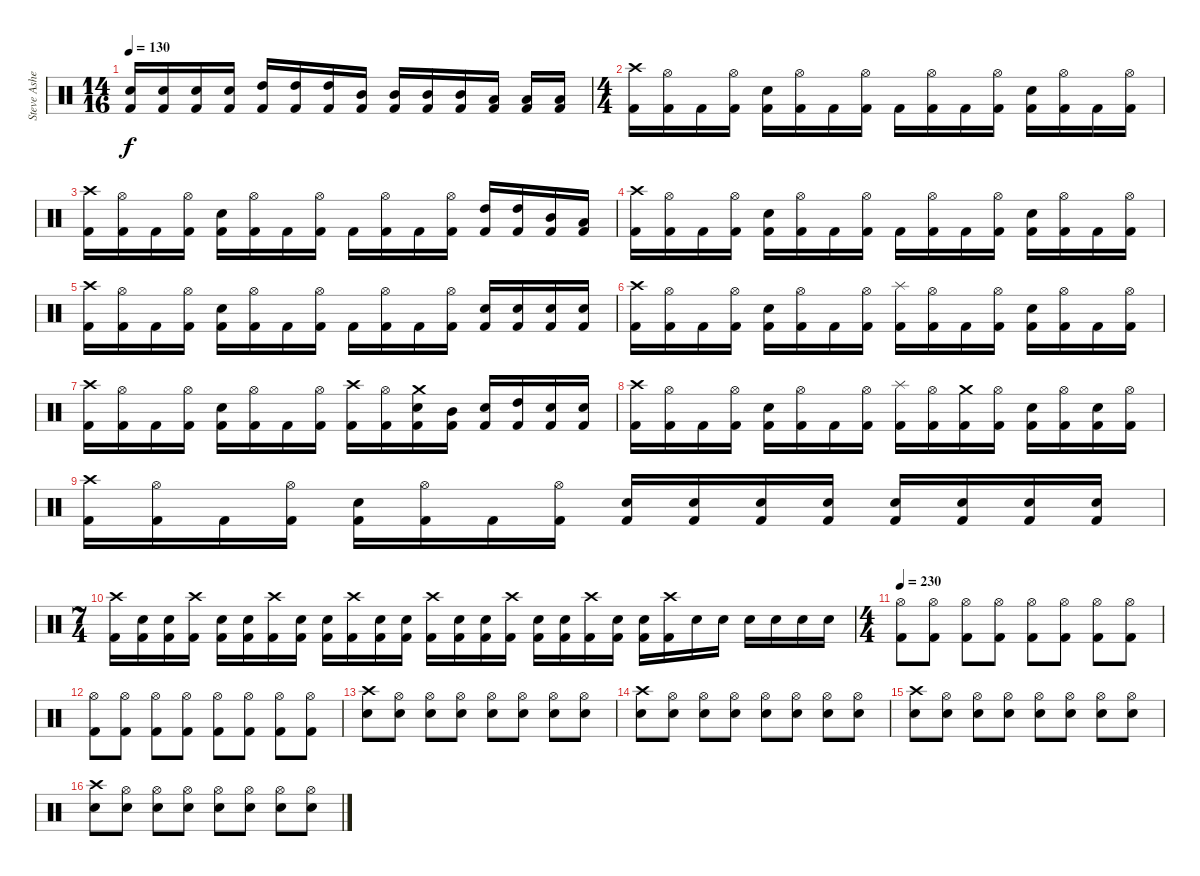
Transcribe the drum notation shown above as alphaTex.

\track ("Steve Asheim" "Steve Ashe") {instrument percussion}
\staff {score}
\articulation defaults
\ts (14 16)
\tempo 130
\clef neutral
\ks c
("Electric Snare (hit)" "Kick (hit) 2").16{dy f} ("Electric Snare (hit)" "Kick (hit) 2").16 ("Electric Snare (hit)" "Kick (hit) 2").16 ("Electric Snare (hit)" "Kick (hit) 2").16 ("High Tom (hit)" "Kick (hit) 2").16 ("High Tom (hit)" "Kick (hit) 2").16 ("High Tom (hit)" "Kick (hit) 2").16 ("Mid Tom (hit)" "Kick (hit) 2").16 ("Mid Tom (hit)" "Kick (hit) 2").16 ("Mid Tom (hit)" "Kick (hit) 2").16 ("Mid Tom (hit)" "Kick (hit) 2").16 ("Low Tom (hit)" "Kick (hit) 2").16 ("Low Tom (hit)" "Kick (hit) 2").16 ("Low Tom (hit)" "Kick (hit) 2").16 |
\ts (4 4)
("Crash high (hit)" "Kick (hit) 2").16 ("Hi-Hat (open)" "Kick (hit) 2").16 "Kick (hit) 2".16 ("Hi-Hat (open)" "Kick (hit) 2").16 ("Electric Snare (hit)" "Kick (hit) 2").16 ("Hi-Hat (open)" "Kick (hit) 2").16 "Kick (hit) 2".16 ("Hi-Hat (open)" "Kick (hit) 2").16 "Kick (hit) 2".16 ("Hi-Hat (open)" "Kick (hit) 2").16 "Kick (hit) 2".16 ("Hi-Hat (open)" "Kick (hit) 2").16 ("Electric Snare (hit)" "Kick (hit) 2").16 ("Hi-Hat (open)" "Kick (hit) 2").16 "Kick (hit) 2".16 ("Hi-Hat (open)" "Kick (hit) 2").16 |
("Crash high (hit)" "Kick (hit) 2").16 ("Hi-Hat (open)" "Kick (hit) 2").16 "Kick (hit) 2".16 ("Hi-Hat (open)" "Kick (hit) 2").16 ("Electric Snare (hit)" "Kick (hit) 2").16 ("Hi-Hat (open)" "Kick (hit) 2").16 "Kick (hit) 2".16 ("Hi-Hat (open)" "Kick (hit) 2").16 "Kick (hit) 2".16 ("Hi-Hat (open)" "Kick (hit) 2").16 "Kick (hit) 2".16 ("Hi-Hat (open)" "Kick (hit) 2").16 ("High Tom (hit)" "Kick (hit) 2").16 ("High Tom (hit)" "Kick (hit) 2").16 ("Mid Tom (hit)" "Kick (hit) 2").16 ("Low Tom (hit)" "Kick (hit) 2").16 |
("Crash high (hit)" "Kick (hit) 2").16 ("Hi-Hat (open)" "Kick (hit) 2").16 "Kick (hit) 2".16 ("Hi-Hat (open)" "Kick (hit) 2").16 ("Electric Snare (hit)" "Kick (hit) 2").16 ("Hi-Hat (open)" "Kick (hit) 2").16 "Kick (hit) 2".16 ("Hi-Hat (open)" "Kick (hit) 2").16 "Kick (hit) 2".16 ("Hi-Hat (open)" "Kick (hit) 2").16 "Kick (hit) 2".16 ("Hi-Hat (open)" "Kick (hit) 2").16 ("Electric Snare (hit)" "Kick (hit) 2").16 ("Hi-Hat (open)" "Kick (hit) 2").16 "Kick (hit) 2".16 ("Hi-Hat (open)" "Kick (hit) 2").16 |
("Crash high (hit)" "Kick (hit) 2").16 ("Hi-Hat (open)" "Kick (hit) 2").16 "Kick (hit) 2".16 ("Hi-Hat (open)" "Kick (hit) 2").16 ("Electric Snare (hit)" "Kick (hit) 2").16 ("Hi-Hat (open)" "Kick (hit) 2").16 "Kick (hit) 2".16 ("Hi-Hat (open)" "Kick (hit) 2").16 "Kick (hit) 2".16 ("Hi-Hat (open)" "Kick (hit) 2").16 "Kick (hit) 2".16 ("Hi-Hat (open)" "Kick (hit) 2").16 ("Electric Snare (hit)" "Kick (hit) 2").16 ("Electric Snare (hit)" "Kick (hit) 2").16 ("Electric Snare (hit)" "Kick (hit) 2").16 ("Electric Snare (hit)" "Kick (hit) 2").16 |
("Crash high (hit)" "Kick (hit) 2").16 ("Hi-Hat (open)" "Kick (hit) 2").16 "Kick (hit) 2".16 ("Hi-Hat (open)" "Kick (hit) 2").16 ("Electric Snare (hit)" "Kick (hit) 2").16 ("Hi-Hat (open)" "Kick (hit) 2").16 "Kick (hit) 2".16 ("Hi-Hat (open)" "Kick (hit) 2").16 ("Splash (hit)" "Kick (hit) 2").16 ("Hi-Hat (open)" "Kick (hit) 2").16 "Kick (hit) 2".16 ("Hi-Hat (open)" "Kick (hit) 2").16 ("Electric Snare (hit)" "Kick (hit) 2").16 ("Hi-Hat (open)" "Kick (hit) 2").16 "Kick (hit) 2".16 ("Hi-Hat (open)" "Kick (hit) 2").16 |
("Crash high (hit)" "Kick (hit) 2").16 ("Hi-Hat (open)" "Kick (hit) 2").16 "Kick (hit) 2".16 ("Hi-Hat (open)" "Kick (hit) 2").16 ("Electric Snare (hit)" "Kick (hit) 2").16 ("Hi-Hat (open)" "Kick (hit) 2").16 "Kick (hit) 2".16 ("Hi-Hat (open)" "Kick (hit) 2").16 ("Crash high (hit)" "Kick (hit) 2").16 ("Hi-Hat (open)" "Kick (hit) 2").16 ("Crash medium (hit)" "Electric Snare (hit)" "Kick (hit) 2").16 ("Mid Tom (hit)" "Kick (hit) 2").16 ("Electric Snare (hit)" "Kick (hit) 2").16 ("High Tom (hit)" "Kick (hit) 2").16 ("Electric Snare (hit)" "Kick (hit) 2").16 ("Electric Snare (hit)" "Kick (hit) 2").16 |
("Crash high (hit)" "Kick (hit) 2").16 ("Hi-Hat (open)" "Kick (hit) 2").16 "Kick (hit) 2".16 ("Hi-Hat (open)" "Kick (hit) 2").16 ("Electric Snare (hit)" "Kick (hit) 2").16 ("Hi-Hat (open)" "Kick (hit) 2").16 "Kick (hit) 2".16 ("Hi-Hat (open)" "Kick (hit) 2").16 ("Splash (hit)" "Kick (hit) 2").16 ("Hi-Hat (open)" "Kick (hit) 2").16 ("Crash medium (hit)" "Kick (hit) 2").16 ("Hi-Hat (open)" "Kick (hit) 2").16 ("Electric Snare (hit)" "Kick (hit) 2").16 ("Hi-Hat (open)" "Kick (hit) 2").16 ("Electric Snare (hit)" "Kick (hit) 2").16 ("Hi-Hat (open)" "Kick (hit) 2").16 |
("Crash high (hit)" "Kick (hit) 2").16 ("Hi-Hat (open)" "Kick (hit) 2").16 "Kick (hit) 2".16 ("Hi-Hat (open)" "Kick (hit) 2").16 ("Electric Snare (hit)" "Kick (hit) 2").16 ("Hi-Hat (open)" "Kick (hit) 2").16 "Kick (hit) 2".16 ("Hi-Hat (open)" "Kick (hit) 2").16 ("Electric Snare (hit)" "Kick (hit) 2").16 ("Electric Snare (hit)" "Kick (hit) 2").16 ("Electric Snare (hit)" "Kick (hit) 2").16 ("Electric Snare (hit)" "Kick (hit) 2").16 ("Electric Snare (hit)" "Kick (hit) 2").16 ("Electric Snare (hit)" "Kick (hit) 2").16 ("Electric Snare (hit)" "Kick (hit) 2").16 ("Electric Snare (hit)" "Kick (hit) 2").16 |
\ts (7 4)
("Crash high (hit)" "Kick (hit) 2").16 ("Electric Snare (hit)" "Kick (hit) 2").16 ("Electric Snare (hit)" "Kick (hit) 2").16 ("Crash high (hit)" "Kick (hit) 2").16 ("Electric Snare (hit)" "Kick (hit) 2").16 ("Electric Snare (hit)" "Kick (hit) 2").16 ("Crash high (hit)" "Kick (hit) 2").16 ("Electric Snare (hit)" "Kick (hit) 2").16 ("Electric Snare (hit)" "Kick (hit) 2").16 ("Crash high (hit)" "Kick (hit) 2").16 ("Electric Snare (hit)" "Kick (hit) 2").16 ("Electric Snare (hit)" "Kick (hit) 2").16 ("Crash high (hit)" "Kick (hit) 2").16 ("Electric Snare (hit)" "Kick (hit) 2").16 ("Electric Snare (hit)" "Kick (hit) 2").16 ("Crash high (hit)" "Kick (hit) 2").16 ("Electric Snare (hit)" "Kick (hit) 2").16 ("Electric Snare (hit)" "Kick (hit) 2").16 ("Crash high (hit)" "Kick (hit) 2").16 ("Electric Snare (hit)" "Kick (hit) 2").16 ("Electric Snare (hit)" "Kick (hit) 2").16 ("Crash high (hit)" "Kick (hit) 2").16 "Electric Snare (hit)".16 "Electric Snare (hit)".16 "Electric Snare (hit)".16 "Electric Snare (hit)".16 "Electric Snare (hit)".16 "Electric Snare (hit)".16 |
\ts (4 4)
\tempo 230
("Hi-Hat (open)" "Kick (hit) 2").8 ("Hi-Hat (open)" "Kick (hit) 2").8 ("Hi-Hat (open)" "Kick (hit) 2").8 ("Hi-Hat (open)" "Kick (hit) 2").8 ("Hi-Hat (open)" "Kick (hit) 2").8 ("Hi-Hat (open)" "Kick (hit) 2").8 ("Hi-Hat (open)" "Kick (hit) 2").8 ("Hi-Hat (open)" "Kick (hit) 2").8 |
("Hi-Hat (open)" "Kick (hit) 2").8 ("Hi-Hat (open)" "Kick (hit) 2").8 ("Hi-Hat (open)" "Kick (hit) 2").8 ("Hi-Hat (open)" "Kick (hit) 2").8 ("Hi-Hat (open)" "Kick (hit) 2").8 ("Hi-Hat (open)" "Kick (hit) 2").8 ("Hi-Hat (open)" "Kick (hit) 2").8 ("Hi-Hat (open)" "Kick (hit) 2").8 |
("Crash high (hit)" "Electric Snare (hit)").8 ("Hi-Hat (open)" "Electric Snare (hit)").8 ("Hi-Hat (open)" "Electric Snare (hit)").8 ("Hi-Hat (open)" "Electric Snare (hit)").8 ("Hi-Hat (open)" "Electric Snare (hit)").8 ("Hi-Hat (open)" "Electric Snare (hit)").8 ("Hi-Hat (open)" "Electric Snare (hit)").8 ("Hi-Hat (open)" "Electric Snare (hit)").8 |
("Crash high (hit)" "Electric Snare (hit)").8 ("Hi-Hat (open)" "Electric Snare (hit)").8 ("Hi-Hat (open)" "Electric Snare (hit)").8 ("Hi-Hat (open)" "Electric Snare (hit)").8 ("Hi-Hat (open)" "Electric Snare (hit)").8 ("Hi-Hat (open)" "Electric Snare (hit)").8 ("Hi-Hat (open)" "Electric Snare (hit)").8 ("Hi-Hat (open)" "Electric Snare (hit)").8 |
("Crash high (hit)" "Electric Snare (hit)").8 ("Hi-Hat (open)" "Electric Snare (hit)").8 ("Hi-Hat (open)" "Electric Snare (hit)").8 ("Hi-Hat (open)" "Electric Snare (hit)").8 ("Hi-Hat (open)" "Electric Snare (hit)").8 ("Hi-Hat (open)" "Electric Snare (hit)").8 ("Hi-Hat (open)" "Electric Snare (hit)").8 ("Hi-Hat (open)" "Electric Snare (hit)").8 |
("Crash high (hit)" "Electric Snare (hit)").8 ("Hi-Hat (open)" "Electric Snare (hit)").8 ("Hi-Hat (open)" "Electric Snare (hit)").8 ("Hi-Hat (open)" "Electric Snare (hit)").8 ("Hi-Hat (open)" "Electric Snare (hit)").8 ("Hi-Hat (open)" "Electric Snare (hit)").8 ("Hi-Hat (open)" "Electric Snare (hit)").8 ("Hi-Hat (open)" "Electric Snare (hit)").8
